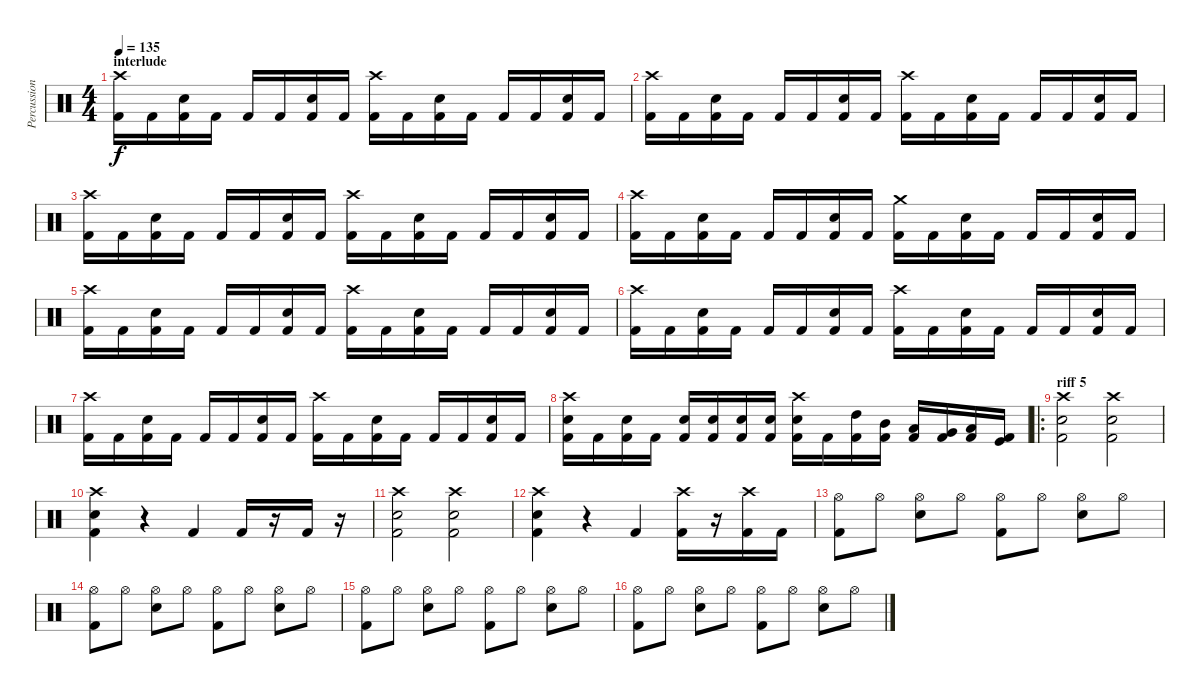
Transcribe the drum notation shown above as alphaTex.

\track ("Percussions" "Percussion") {instrument percussion}
\staff {score}
\articulation defaults
\ts (4 4)
\section ("" "interlude")
\tempo 135
\clef neutral
\ks c
("Crash high (hit)" "Kick (hit) 2").16{dy f} "Kick (hit) 2".16 ("Snare (hit) 2" "Kick (hit) 2").16 "Kick (hit) 2".16 "Kick (hit) 2".16 "Kick (hit) 2".16 ("Snare (hit) 2" "Kick (hit) 2").16 "Kick (hit) 2".16 ("Crash high (hit)" "Kick (hit) 2").16 "Kick (hit) 2".16 ("Snare (hit) 2" "Kick (hit) 2").16 "Kick (hit) 2".16 "Kick (hit) 2".16 "Kick (hit) 2".16 ("Snare (hit) 2" "Kick (hit) 2").16 "Kick (hit) 2".16 |
("Crash high (hit)" "Kick (hit) 2").16 "Kick (hit) 2".16 ("Snare (hit) 2" "Kick (hit) 2").16 "Kick (hit) 2".16 "Kick (hit) 2".16 "Kick (hit) 2".16 ("Snare (hit) 2" "Kick (hit) 2").16 "Kick (hit) 2".16 ("Crash high (hit)" "Kick (hit) 2").16 "Kick (hit) 2".16 ("Snare (hit) 2" "Kick (hit) 2").16 "Kick (hit) 2".16 "Kick (hit) 2".16 "Kick (hit) 2".16 ("Snare (hit) 2" "Kick (hit) 2").16 "Kick (hit) 2".16 |
("Crash high (hit)" "Kick (hit) 2").16 "Kick (hit) 2".16 ("Snare (hit) 2" "Kick (hit) 2").16 "Kick (hit) 2".16 "Kick (hit) 2".16 "Kick (hit) 2".16 ("Snare (hit) 2" "Kick (hit) 2").16 "Kick (hit) 2".16 ("Crash high (hit)" "Kick (hit) 2").16 "Kick (hit) 2".16 ("Snare (hit) 2" "Kick (hit) 2").16 "Kick (hit) 2".16 "Kick (hit) 2".16 "Kick (hit) 2".16 ("Snare (hit) 2" "Kick (hit) 2").16 "Kick (hit) 2".16 |
("Crash high (hit)" "Kick (hit) 2").16 "Kick (hit) 2".16 ("Snare (hit) 2" "Kick (hit) 2").16 "Kick (hit) 2".16 "Kick (hit) 2".16 "Kick (hit) 2".16 ("Snare (hit) 2" "Kick (hit) 2").16 "Kick (hit) 2".16 ("Crash medium (hit)" "Kick (hit) 2").16 "Kick (hit) 2".16 ("Snare (hit) 2" "Kick (hit) 2").16 "Kick (hit) 2".16 "Kick (hit) 2".16 "Kick (hit) 2".16 ("Snare (hit) 2" "Kick (hit) 2").16 "Kick (hit) 2".16 |
("Crash high (hit)" "Kick (hit) 2").16 "Kick (hit) 2".16 ("Snare (hit) 2" "Kick (hit) 2").16 "Kick (hit) 2".16 "Kick (hit) 2".16 "Kick (hit) 2".16 ("Snare (hit) 2" "Kick (hit) 2").16 "Kick (hit) 2".16 ("Crash high (hit)" "Kick (hit) 2").16 "Kick (hit) 2".16 ("Snare (hit) 2" "Kick (hit) 2").16 "Kick (hit) 2".16 "Kick (hit) 2".16 "Kick (hit) 2".16 ("Snare (hit) 2" "Kick (hit) 2").16 "Kick (hit) 2".16 |
("Crash high (hit)" "Kick (hit) 2").16 "Kick (hit) 2".16 ("Snare (hit) 2" "Kick (hit) 2").16 "Kick (hit) 2".16 "Kick (hit) 2".16 "Kick (hit) 2".16 ("Snare (hit) 2" "Kick (hit) 2").16 "Kick (hit) 2".16 ("Crash high (hit)" "Kick (hit) 2").16 "Kick (hit) 2".16 ("Snare (hit) 2" "Kick (hit) 2").16 "Kick (hit) 2".16 "Kick (hit) 2".16 "Kick (hit) 2".16 ("Snare (hit) 2" "Kick (hit) 2").16 "Kick (hit) 2".16 |
("Crash high (hit)" "Kick (hit) 2").16 "Kick (hit) 2".16 ("Snare (hit) 2" "Kick (hit) 2").16 "Kick (hit) 2".16 "Kick (hit) 2".16 "Kick (hit) 2".16 ("Snare (hit) 2" "Kick (hit) 2").16 "Kick (hit) 2".16 ("Crash high (hit)" "Kick (hit) 2").16 "Kick (hit) 2".16 ("Snare (hit) 2" "Kick (hit) 2").16 "Kick (hit) 2".16 "Kick (hit) 2".16 "Kick (hit) 2".16 ("Snare (hit) 2" "Kick (hit) 2").16 "Kick (hit) 2".16 |
("Crash high (hit)" "Snare (hit) 2" "Kick (hit) 2").16 "Kick (hit) 2".16 ("Snare (hit) 2" "Kick (hit) 2").16 "Kick (hit) 2".16 ("Snare (hit) 2" "Kick (hit) 2").16 ("Snare (hit) 2" "Kick (hit) 2").16 ("Snare (hit) 2" "Kick (hit) 2").16 ("Snare (hit) 2" "Kick (hit) 2").16 ("Crash high (hit)" "Snare (hit) 2" "Kick (hit) 2").16 "Kick (hit) 2".16 ("High Tom (hit)" "Kick (hit) 2").16 ("Mid Tom (hit)" "Kick (hit) 2").16 ("Low Tom (hit)" "Kick (hit) 2").16 ("Very Low Tom (hit)" "Kick (hit) 2").16 ("Low Floor Tom (hit)" "Kick (hit) 2").16 ("Kick (hit)" "Kick (hit) 2").16 |
\ro
\section ("" "riff 5")
("Crash high (hit)" "Snare (hit) 2" "Kick (hit) 2").2 ("Crash high (hit)" "Snare (hit) 2" "Kick (hit) 2").2 |
("Crash high (hit)" "Snare (hit) 2" "Kick (hit) 2").4 r.4 "Kick (hit) 2".4 "Kick (hit) 2".16 r.16 "Kick (hit) 2".16 r.16 |
("Crash high (hit)" "Snare (hit) 2" "Kick (hit) 2").2 ("Crash high (hit)" "Snare (hit) 2" "Kick (hit) 2").2 |
("Crash high (hit)" "Snare (hit) 2" "Kick (hit) 2").4 r.4 "Kick (hit) 2".4 ("Crash high (hit)" "Kick (hit) 2").16 r.16 ("Crash high (hit)" "Kick (hit) 2").16 "Kick (hit) 2".16 |
("Hi-Hat (open)" "Kick (hit) 2").8 "Hi-Hat (open)".8 ("Hi-Hat (open)" "Snare (hit) 2").8 "Hi-Hat (open)".8 ("Hi-Hat (open)" "Kick (hit) 2").8 "Hi-Hat (open)".8 ("Hi-Hat (open)" "Snare (hit) 2").8 "Hi-Hat (open)".8 |
("Hi-Hat (open)" "Kick (hit) 2").8 "Hi-Hat (open)".8 ("Hi-Hat (open)" "Snare (hit) 2").8 "Hi-Hat (open)".8 ("Hi-Hat (open)" "Kick (hit) 2").8 "Hi-Hat (open)".8 ("Hi-Hat (open)" "Snare (hit) 2").8 "Hi-Hat (open)".8 |
("Hi-Hat (open)" "Kick (hit) 2").8 "Hi-Hat (open)".8 ("Hi-Hat (open)" "Snare (hit) 2").8 "Hi-Hat (open)".8 ("Hi-Hat (open)" "Kick (hit) 2").8 "Hi-Hat (open)".8 ("Hi-Hat (open)" "Snare (hit) 2").8 "Hi-Hat (open)".8 |
("Hi-Hat (open)" "Kick (hit) 2").8 "Hi-Hat (open)".8 ("Hi-Hat (open)" "Snare (hit) 2").8 "Hi-Hat (open)".8 ("Hi-Hat (open)" "Kick (hit) 2").8 "Hi-Hat (open)".8 ("Hi-Hat (open)" "Snare (hit) 2").8 "Hi-Hat (open)".8
